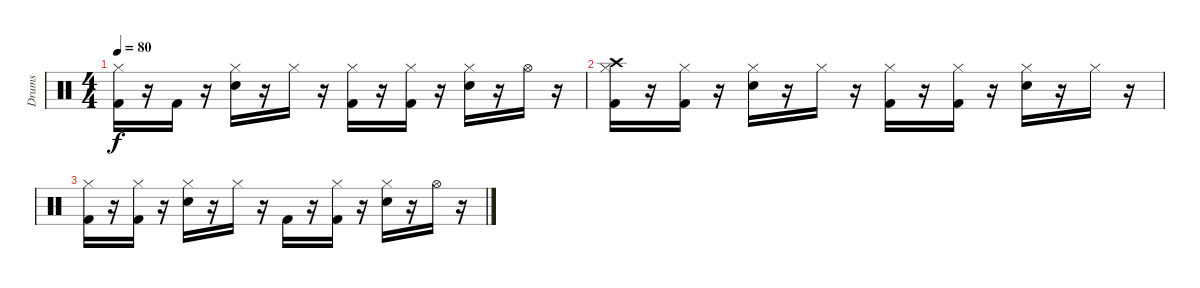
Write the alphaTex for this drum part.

\track ("Drums" "Drums") {instrument percussion}
\staff {score}
\articulation defaults
\ts (4 4)
\tempo 80
\clef neutral
\ks c
("Kick (hit) 2" "Hi-Hat (closed)").16{dy f} r.16 "Kick (hit) 2".16 r.16 ("Snare (hit) 2" "Hi-Hat (closed)").16 r.16 "Hi-Hat (closed)".16 r.16 ("Kick (hit) 2" "Hi-Hat (closed)").16 r.16 ("Kick (hit) 2" "Hi-Hat (closed)").16 r.16 ("Snare (hit) 2" "Hi-Hat (closed)").16 r.16 "Hi-Hat (open)".16 r.16 |
("Kick (hit) 2" "Hi-Hat (closed)" "Crash high (hit)").16 r.16 ("Kick (hit) 2" "Hi-Hat (closed)").16 r.16 ("Snare (hit) 2" "Hi-Hat (closed)").16 r.16 "Hi-Hat (closed)".16 r.16 ("Kick (hit) 2" "Hi-Hat (closed)").16 r.16 ("Kick (hit) 2" "Hi-Hat (closed)").16 r.16 ("Snare (hit) 2" "Hi-Hat (closed)").16 r.16 "Hi-Hat (closed)".16 r.16 |
("Kick (hit) 2" "Hi-Hat (closed)").16 r.16 ("Kick (hit) 2" "Hi-Hat (closed)").16 r.16 ("Snare (hit) 2" "Hi-Hat (closed)").16 r.16 "Hi-Hat (closed)".16 r.16 "Kick (hit) 2".16 r.16 ("Kick (hit) 2" "Hi-Hat (closed)").16 r.16 ("Snare (hit) 2" "Hi-Hat (closed)").16 r.16 "Hi-Hat (open)".16 r.16
